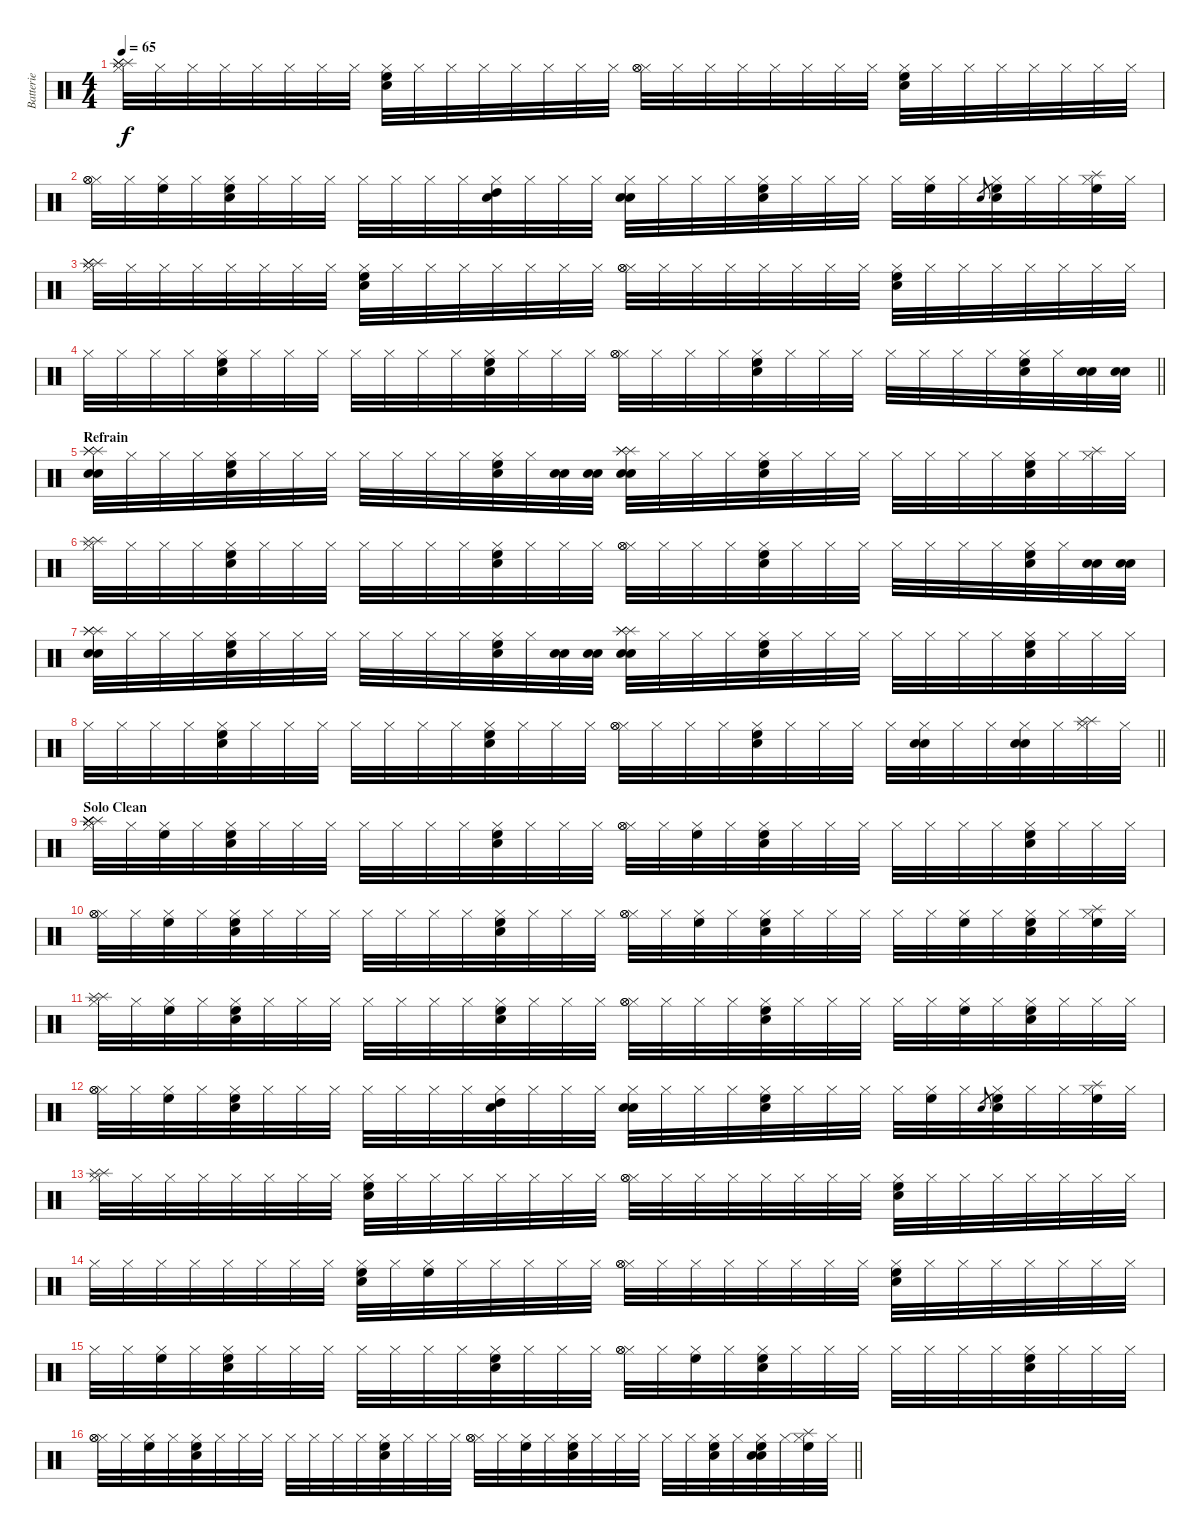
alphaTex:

\track ("Batterie" "Batterie") {instrument percussion}
\staff {score}
\articulation defaults
\ts (4 4)
\tempo 65
\clef neutral
\ks c
("Hi-Hat (closed)" "Splash (hit)" "Splash (hit)" "Splash (hit)").32{dy f} "Hi-Hat (closed)".32 "Hi-Hat (closed)".32 "Hi-Hat (closed)".32 "Hi-Hat (closed)".32 "Hi-Hat (closed)".32 "Hi-Hat (closed)".32 "Hi-Hat (closed)".32 ("Hi-Hat (closed)" "Snare (hit) 2" "High Floor Tom (hit)").32 "Hi-Hat (closed)".32 "Hi-Hat (closed)".32 "Hi-Hat (closed)".32 "Hi-Hat (closed)".32 "Hi-Hat (closed)".32 "Hi-Hat (closed)".32 "Hi-Hat (closed)".32 ("Hi-Hat (closed)" "Hi-Hat (open)" "Hi-Hat (open)").32 "Hi-Hat (closed)".32 "Hi-Hat (closed)".32 "Hi-Hat (closed)".32 "Hi-Hat (closed)".32 "Hi-Hat (closed)".32 "Hi-Hat (closed)".32 "Hi-Hat (closed)".32 ("Hi-Hat (closed)" "Snare (hit) 2" "High Floor Tom (hit)").32 "Hi-Hat (closed)".32 "Hi-Hat (closed)".32 "Hi-Hat (closed)".32 "Hi-Hat (closed)".32 "Hi-Hat (closed)".32 "Hi-Hat (closed)".32 "Hi-Hat (closed)".32 |
("Hi-Hat (closed)" "Hi-Hat (open)" "Hi-Hat (open)").32 "Hi-Hat (closed)".32 ("Hi-Hat (closed)" "High Floor Tom (hit)").32 "Hi-Hat (closed)".32 ("Hi-Hat (closed)" "Snare (hit) 2" "High Floor Tom (hit)").32 "Hi-Hat (closed)".32 "Hi-Hat (closed)".32 "Hi-Hat (closed)".32 "Hi-Hat (closed)".32 "Hi-Hat (closed)".32 "Hi-Hat (closed)".32 "Hi-Hat (closed)".32 ("Hi-Hat (closed)" "Snare (hit) 2" "High Tom (hit)").32 "Hi-Hat (closed)".32 "Hi-Hat (closed)".32 "Hi-Hat (closed)".32 ("Hi-Hat (closed)" "Snare (hit) 2" "Snare (hit) 2").32 "Hi-Hat (closed)".32 "Hi-Hat (closed)".32 "Hi-Hat (closed)".32 ("Hi-Hat (closed)" "Snare (hit) 2" "High Floor Tom (hit)").32 "Hi-Hat (closed)".32 "Hi-Hat (closed)".32 "Hi-Hat (closed)".32 "Hi-Hat (closed)".32 ("Hi-Hat (closed)" "High Floor Tom (hit)").32 "Hi-Hat (closed)".32 "Snare (hit) 2".8{gr} ("Hi-Hat (closed)" "Snare (hit) 2" "High Floor Tom (hit)").32 "Hi-Hat (closed)".32 "Hi-Hat (closed)".32 ("Hi-Hat (closed)" "Splash (hit)" "High Floor Tom (hit)").32 "Hi-Hat (closed)".32 |
("Hi-Hat (closed)" "Splash (hit)" "Splash (hit)" "Splash (hit)").32 "Hi-Hat (closed)".32 "Hi-Hat (closed)".32 "Hi-Hat (closed)".32 "Hi-Hat (closed)".32 "Hi-Hat (closed)".32 "Hi-Hat (closed)".32 "Hi-Hat (closed)".32 ("Hi-Hat (closed)" "Snare (hit) 2" "High Floor Tom (hit)").32 "Hi-Hat (closed)".32 "Hi-Hat (closed)".32 "Hi-Hat (closed)".32 "Hi-Hat (closed)".32 "Hi-Hat (closed)".32 "Hi-Hat (closed)".32 "Hi-Hat (closed)".32 ("Hi-Hat (closed)" "Hi-Hat (open)" "Hi-Hat (open)").32 "Hi-Hat (closed)".32 "Hi-Hat (closed)".32 "Hi-Hat (closed)".32 "Hi-Hat (closed)".32 "Hi-Hat (closed)".32 "Hi-Hat (closed)".32 "Hi-Hat (closed)".32 ("Hi-Hat (closed)" "Snare (hit) 2" "High Floor Tom (hit)").32 "Hi-Hat (closed)".32 "Hi-Hat (closed)".32 "Hi-Hat (closed)".32 "Hi-Hat (closed)".32 "Hi-Hat (closed)".32 "Hi-Hat (closed)".32 "Hi-Hat (closed)".32 |
\barLineRight lightlight "Hi-Hat (closed)".32 "Hi-Hat (closed)".32 "Hi-Hat (closed)".32 "Hi-Hat (closed)".32
("Hi-Hat (closed)" "Snare (hit) 2" "High Floor Tom (hit)").32 "Hi-Hat (closed)".32 "Hi-Hat (closed)".32 "Hi-Hat (closed)".32 "Hi-Hat (closed)".32 "Hi-Hat (closed)".32 "Hi-Hat (closed)".32 "Hi-Hat (closed)".32 ("Hi-Hat (closed)" "Snare (hit) 2" "High Floor Tom (hit)").32 "Hi-Hat (closed)".32 "Hi-Hat (closed)".32 "Hi-Hat (closed)".32 ("Hi-Hat (closed)" "Hi-Hat (open)" "Hi-Hat (open)").32 "Hi-Hat (closed)".32 "Hi-Hat (closed)".32 "Hi-Hat (closed)".32 ("Hi-Hat (closed)" "Snare (hit) 2" "High Floor Tom (hit)").32 "Hi-Hat (closed)".32 "Hi-Hat (closed)".32 "Hi-Hat (closed)".32 "Hi-Hat (closed)".32 "Hi-Hat (closed)".32 "Hi-Hat (closed)".32 "Hi-Hat (closed)".32 ("Hi-Hat (closed)" "Snare (hit) 2" "High Floor Tom (hit)").32 "Hi-Hat (closed)".32 ("Snare (hit) 2" "Snare (hit) 2").32 ("Snare (hit) 2" "Snare (hit) 2").32 |
\section ("" "Refrain")
("Snare (hit) 2" "Snare (hit) 2" "Splash (hit)" "Splash (hit)" "Splash (hit)").32 "Hi-Hat (closed)".32 "Hi-Hat (closed)".32 "Hi-Hat (closed)".32 ("Hi-Hat (closed)" "Snare (hit) 2" "High Floor Tom (hit)").32 "Hi-Hat (closed)".32 "Hi-Hat (closed)".32 "Hi-Hat (closed)".32 "Hi-Hat (closed)".32 "Hi-Hat (closed)".32 "Hi-Hat (closed)".32 "Hi-Hat (closed)".32 ("Hi-Hat (closed)" "Snare (hit) 2" "High Floor Tom (hit)").32 "Hi-Hat (closed)".32 ("Snare (hit) 2" "Snare (hit) 2").32 ("Snare (hit) 2" "Snare (hit) 2").32 ("Snare (hit) 2" "Snare (hit) 2" "Splash (hit)" "Splash (hit)" "Splash (hit)").32 "Hi-Hat (closed)".32 "Hi-Hat (closed)".32 "Hi-Hat (closed)".32 ("Hi-Hat (closed)" "Snare (hit) 2" "High Floor Tom (hit)").32 "Hi-Hat (closed)".32 "Hi-Hat (closed)".32 "Hi-Hat (closed)".32 "Hi-Hat (closed)".32 "Hi-Hat (closed)".32 "Hi-Hat (closed)".32 "Hi-Hat (closed)".32 ("Hi-Hat (closed)" "Snare (hit) 2" "High Floor Tom (hit)").32 "Hi-Hat (closed)".32 ("Hi-Hat (closed)" "Splash (hit)").32 "Hi-Hat (closed)".32 |
("Hi-Hat (closed)" "Splash (hit)" "Splash (hit)").32 "Hi-Hat (closed)".32 "Hi-Hat (closed)".32 "Hi-Hat (closed)".32 ("Hi-Hat (closed)" "Snare (hit) 2" "High Floor Tom (hit)").32 "Hi-Hat (closed)".32 "Hi-Hat (closed)".32 "Hi-Hat (closed)".32 "Hi-Hat (closed)".32 "Hi-Hat (closed)".32 "Hi-Hat (closed)".32 "Hi-Hat (closed)".32 ("Hi-Hat (closed)" "Snare (hit) 2" "High Floor Tom (hit)").32 "Hi-Hat (closed)".32 "Hi-Hat (closed)".32 "Hi-Hat (closed)".32 ("Hi-Hat (closed)" "Hi-Hat (open)" "Hi-Hat (open)").32 "Hi-Hat (closed)".32 "Hi-Hat (closed)".32 "Hi-Hat (closed)".32 ("Hi-Hat (closed)" "Snare (hit) 2" "High Floor Tom (hit)").32 "Hi-Hat (closed)".32 "Hi-Hat (closed)".32 "Hi-Hat (closed)".32 "Hi-Hat (closed)".32 "Hi-Hat (closed)".32 "Hi-Hat (closed)".32 "Hi-Hat (closed)".32 ("Hi-Hat (closed)" "Snare (hit) 2" "High Floor Tom (hit)").32 "Hi-Hat (closed)".32 ("Snare (hit) 2" "Snare (hit) 2").32 ("Snare (hit) 2" "Snare (hit) 2").32 |
("Snare (hit) 2" "Snare (hit) 2" "Splash (hit)" "Splash (hit)" "Splash (hit)").32 "Hi-Hat (closed)".32 "Hi-Hat (closed)".32 "Hi-Hat (closed)".32 ("Hi-Hat (closed)" "Snare (hit) 2" "High Floor Tom (hit)").32 "Hi-Hat (closed)".32 "Hi-Hat (closed)".32 "Hi-Hat (closed)".32 "Hi-Hat (closed)".32 "Hi-Hat (closed)".32 "Hi-Hat (closed)".32 "Hi-Hat (closed)".32 ("Hi-Hat (closed)" "Snare (hit) 2" "High Floor Tom (hit)").32 "Hi-Hat (closed)".32 ("Snare (hit) 2" "Snare (hit) 2").32 ("Snare (hit) 2" "Snare (hit) 2").32 ("Snare (hit) 2" "Snare (hit) 2" "Splash (hit)" "Splash (hit)" "Splash (hit)").32 "Hi-Hat (closed)".32 "Hi-Hat (closed)".32 "Hi-Hat (closed)".32 ("Hi-Hat (closed)" "Snare (hit) 2" "High Floor Tom (hit)").32 "Hi-Hat (closed)".32 "Hi-Hat (closed)".32 "Hi-Hat (closed)".32 "Hi-Hat (closed)".32 "Hi-Hat (closed)".32 "Hi-Hat (closed)".32 "Hi-Hat (closed)".32 ("Hi-Hat (closed)" "Snare (hit) 2" "High Floor Tom (hit)").32 "Hi-Hat (closed)".32 "Hi-Hat (closed)".32 "Hi-Hat (closed)".32 |
\barLineRight lightlight "Hi-Hat (closed)".32 "Hi-Hat (closed)".32 "Hi-Hat (closed)".32 "Hi-Hat (closed)".32
("Hi-Hat (closed)" "Snare (hit) 2" "High Floor Tom (hit)").32 "Hi-Hat (closed)".32 "Hi-Hat (closed)".32 "Hi-Hat (closed)".32 "Hi-Hat (closed)".32 "Hi-Hat (closed)".32 "Hi-Hat (closed)".32 "Hi-Hat (closed)".32 ("Hi-Hat (closed)" "Snare (hit) 2" "High Floor Tom (hit)").32 "Hi-Hat (closed)".32 "Hi-Hat (closed)".32 "Hi-Hat (closed)".32 ("Hi-Hat (closed)" "Hi-Hat (open)" "Hi-Hat (open)").32 "Hi-Hat (closed)".32 "Hi-Hat (closed)".32 "Hi-Hat (closed)".32 ("Hi-Hat (closed)" "Snare (hit) 2" "High Floor Tom (hit)").32 "Hi-Hat (closed)".32 "Hi-Hat (closed)".32 "Hi-Hat (closed)".32 "Hi-Hat (closed)".32 ("Hi-Hat (closed)" "Snare (hit) 2" "Snare (hit) 2").32 "Hi-Hat (closed)".32 "Hi-Hat (closed)".32 ("Hi-Hat (closed)" "Snare (hit) 2" "Snare (hit) 2").32 "Hi-Hat (closed)".32 ("Hi-Hat (closed)" "Splash (hit)" "Splash (hit)").32 "Hi-Hat (closed)".32 |
\section ("" "Solo Clean")
("Hi-Hat (closed)" "Splash (hit)" "Splash (hit)" "Splash (hit)" "Splash (hit)" "Splash (hit)").32 "Hi-Hat (closed)".32 ("Hi-Hat (closed)" "High Floor Tom (hit)").32 "Hi-Hat (closed)".32 ("Hi-Hat (closed)" "Snare (hit) 2" "High Floor Tom (hit)").32 "Hi-Hat (closed)".32 "Hi-Hat (closed)".32 "Hi-Hat (closed)".32 "Hi-Hat (closed)".32 "Hi-Hat (closed)".32 "Hi-Hat (closed)".32 "Hi-Hat (closed)".32 ("Hi-Hat (closed)" "Snare (hit) 2" "High Floor Tom (hit)").32 "Hi-Hat (closed)".32 "Hi-Hat (closed)".32 "Hi-Hat (closed)".32 ("Hi-Hat (closed)" "Hi-Hat (open)" "Hi-Hat (open)").32 "Hi-Hat (closed)".32 ("Hi-Hat (closed)" "High Floor Tom (hit)").32 "Hi-Hat (closed)".32 ("Hi-Hat (closed)" "Snare (hit) 2" "High Floor Tom (hit)").32 "Hi-Hat (closed)".32 "Hi-Hat (closed)".32 "Hi-Hat (closed)".32 "Hi-Hat (closed)".32 "Hi-Hat (closed)".32 "Hi-Hat (closed)".32 "Hi-Hat (closed)".32 ("Hi-Hat (closed)" "Snare (hit) 2" "High Floor Tom (hit)").32 "Hi-Hat (closed)".32 "Hi-Hat (closed)".32 "Hi-Hat (closed)".32 |
("Hi-Hat (closed)" "Hi-Hat (open)" "Hi-Hat (open)").32 "Hi-Hat (closed)".32 ("Hi-Hat (closed)" "High Floor Tom (hit)").32 "Hi-Hat (closed)".32 ("Hi-Hat (closed)" "Snare (hit) 2" "High Floor Tom (hit)").32 "Hi-Hat (closed)".32 "Hi-Hat (closed)".32 "Hi-Hat (closed)".32 "Hi-Hat (closed)".32 "Hi-Hat (closed)".32 "Hi-Hat (closed)".32 "Hi-Hat (closed)".32 ("Hi-Hat (closed)" "Snare (hit) 2" "High Floor Tom (hit)").32 "Hi-Hat (closed)".32 "Hi-Hat (closed)".32 "Hi-Hat (closed)".32 ("Hi-Hat (closed)" "Hi-Hat (open)" "Hi-Hat (open)").32 "Hi-Hat (closed)".32 ("Hi-Hat (closed)" "High Floor Tom (hit)").32 "Hi-Hat (closed)".32 ("Hi-Hat (closed)" "Snare (hit) 2" "High Floor Tom (hit)").32 "Hi-Hat (closed)".32 "Hi-Hat (closed)".32 "Hi-Hat (closed)".32 "Hi-Hat (closed)".32 "Hi-Hat (closed)".32 ("Hi-Hat (closed)" "High Floor Tom (hit)").32 "Hi-Hat (closed)".32 ("Hi-Hat (closed)" "Snare (hit) 2" "High Floor Tom (hit)").32 "Hi-Hat (closed)".32 ("Hi-Hat (closed)" "Splash (hit)" "High Floor Tom (hit)").32 "Hi-Hat (closed)".32 |
("Hi-Hat (closed)" "Splash (hit)" "Splash (hit)").32 "Hi-Hat (closed)".32 ("Hi-Hat (closed)" "High Floor Tom (hit)").32 "Hi-Hat (closed)".32 ("Hi-Hat (closed)" "Snare (hit) 2" "High Floor Tom (hit)").32 "Hi-Hat (closed)".32 "Hi-Hat (closed)".32 "Hi-Hat (closed)".32 "Hi-Hat (closed)".32 "Hi-Hat (closed)".32 "Hi-Hat (closed)".32 "Hi-Hat (closed)".32 ("Hi-Hat (closed)" "Snare (hit) 2" "High Floor Tom (hit)").32 "Hi-Hat (closed)".32 "Hi-Hat (closed)".32 "Hi-Hat (closed)".32 ("Hi-Hat (closed)" "Hi-Hat (open)" "Hi-Hat (open)").32 "Hi-Hat (closed)".32 "Hi-Hat (closed)".32 "Hi-Hat (closed)".32 ("Hi-Hat (closed)" "Snare (hit) 2" "High Floor Tom (hit)").32 "Hi-Hat (closed)".32 "Hi-Hat (closed)".32 "Hi-Hat (closed)".32 "Hi-Hat (closed)".32 "Hi-Hat (closed)".32 ("Hi-Hat (closed)" "High Floor Tom (hit)").32 "Hi-Hat (closed)".32 ("Hi-Hat (closed)" "Snare (hit) 2" "High Floor Tom (hit)").32 "Hi-Hat (closed)".32 "Hi-Hat (closed)".32 "Hi-Hat (closed)".32 |
("Hi-Hat (closed)" "Hi-Hat (open)" "Hi-Hat (open)").32 "Hi-Hat (closed)".32 ("Hi-Hat (closed)" "High Floor Tom (hit)").32 "Hi-Hat (closed)".32 ("Hi-Hat (closed)" "Snare (hit) 2" "High Floor Tom (hit)").32 "Hi-Hat (closed)".32 "Hi-Hat (closed)".32 "Hi-Hat (closed)".32 "Hi-Hat (closed)".32 "Hi-Hat (closed)".32 "Hi-Hat (closed)".32 "Hi-Hat (closed)".32 ("Hi-Hat (closed)" "Snare (hit) 2" "High Tom (hit)").32 "Hi-Hat (closed)".32 "Hi-Hat (closed)".32 "Hi-Hat (closed)".32 ("Hi-Hat (closed)" "Snare (hit) 2" "Snare (hit) 2").32 "Hi-Hat (closed)".32 "Hi-Hat (closed)".32 "Hi-Hat (closed)".32 ("Hi-Hat (closed)" "Snare (hit) 2" "High Floor Tom (hit)").32 "Hi-Hat (closed)".32 "Hi-Hat (closed)".32 "Hi-Hat (closed)".32 "Hi-Hat (closed)".32 ("Hi-Hat (closed)" "High Floor Tom (hit)").32 "Hi-Hat (closed)".32 "Snare (hit) 2".8{gr} ("Hi-Hat (closed)" "Snare (hit) 2" "High Floor Tom (hit)").32 "Hi-Hat (closed)".32 "Hi-Hat (closed)".32 ("Hi-Hat (closed)" "Splash (hit)" "High Floor Tom (hit)").32 "Hi-Hat (closed)".32 |
("Hi-Hat (closed)" "Splash (hit)" "Splash (hit)").32 "Hi-Hat (closed)".32 "Hi-Hat (closed)".32 "Hi-Hat (closed)".32 "Hi-Hat (closed)".32 "Hi-Hat (closed)".32 "Hi-Hat (closed)".32 "Hi-Hat (closed)".32 ("Hi-Hat (closed)" "Snare (hit) 2" "High Floor Tom (hit)").32 "Hi-Hat (closed)".32 "Hi-Hat (closed)".32 "Hi-Hat (closed)".32 "Hi-Hat (closed)".32 "Hi-Hat (closed)".32 "Hi-Hat (closed)".32 "Hi-Hat (closed)".32 ("Hi-Hat (closed)" "Hi-Hat (open)" "Hi-Hat (open)").32 "Hi-Hat (closed)".32 "Hi-Hat (closed)".32 "Hi-Hat (closed)".32 "Hi-Hat (closed)".32 "Hi-Hat (closed)".32 "Hi-Hat (closed)".32 "Hi-Hat (closed)".32 ("Hi-Hat (closed)" "Snare (hit) 2" "High Floor Tom (hit)").32 "Hi-Hat (closed)".32 "Hi-Hat (closed)".32 "Hi-Hat (closed)".32 "Hi-Hat (closed)".32 "Hi-Hat (closed)".32 "Hi-Hat (closed)".32 "Hi-Hat (closed)".32 |
"Hi-Hat (closed)".32 "Hi-Hat (closed)".32 "Hi-Hat (closed)".32 "Hi-Hat (closed)".32 "Hi-Hat (closed)".32 "Hi-Hat (closed)".32 "Hi-Hat (closed)".32 "Hi-Hat (closed)".32 ("Hi-Hat (closed)" "Snare (hit) 2" "High Floor Tom (hit)").32 "Hi-Hat (closed)".32 ("Hi-Hat (closed)" "High Floor Tom (hit)").32 "Hi-Hat (closed)".32 "Hi-Hat (closed)".32 "Hi-Hat (closed)".32 "Hi-Hat (closed)".32 "Hi-Hat (closed)".32 ("Hi-Hat (closed)" "Hi-Hat (open)" "Hi-Hat (open)").32 "Hi-Hat (closed)".32 "Hi-Hat (closed)".32 "Hi-Hat (closed)".32 "Hi-Hat (closed)".32 "Hi-Hat (closed)".32 "Hi-Hat (closed)".32 "Hi-Hat (closed)".32 ("Hi-Hat (closed)" "Snare (hit) 2" "High Floor Tom (hit)").32 "Hi-Hat (closed)".32 "Hi-Hat (closed)".32 "Hi-Hat (closed)".32 "Hi-Hat (closed)".32 "Hi-Hat (closed)".32 "Hi-Hat (closed)".32 "Hi-Hat (closed)".32 |
"Hi-Hat (closed)".32 "Hi-Hat (closed)".32 ("Hi-Hat (closed)" "High Floor Tom (hit)").32 "Hi-Hat (closed)".32 ("Hi-Hat (closed)" "Snare (hit) 2" "High Floor Tom (hit)").32 "Hi-Hat (closed)".32 "Hi-Hat (closed)".32 "Hi-Hat (closed)".32 "Hi-Hat (closed)".32 "Hi-Hat (closed)".32 "Hi-Hat (closed)".32 "Hi-Hat (closed)".32 ("Hi-Hat (closed)" "Snare (hit) 2" "High Floor Tom (hit)").32 "Hi-Hat (closed)".32 "Hi-Hat (closed)".32 "Hi-Hat (closed)".32 ("Hi-Hat (closed)" "Hi-Hat (open)" "Hi-Hat (open)").32 "Hi-Hat (closed)".32 ("Hi-Hat (closed)" "High Floor Tom (hit)").32 "Hi-Hat (closed)".32 ("Hi-Hat (closed)" "Snare (hit) 2" "High Floor Tom (hit)").32 "Hi-Hat (closed)".32 "Hi-Hat (closed)".32 "Hi-Hat (closed)".32 "Hi-Hat (closed)".32 "Hi-Hat (closed)".32 "Hi-Hat (closed)".32 "Hi-Hat (closed)".32 ("Hi-Hat (closed)" "Snare (hit) 2" "High Floor Tom (hit)").32 "Hi-Hat (closed)".32 "Hi-Hat (closed)".32 "Hi-Hat (closed)".32 |
\barLineRight lightlight
("Hi-Hat (closed)" "Hi-Hat (open)" "Hi-Hat (open)").32 "Hi-Hat (closed)".32 ("Hi-Hat (closed)" "High Floor Tom (hit)").32 "Hi-Hat (closed)".32 ("Hi-Hat (closed)" "Snare (hit) 2" "High Floor Tom (hit)").32 "Hi-Hat (closed)".32 "Hi-Hat (closed)".32 "Hi-Hat (closed)".32 "Hi-Hat (closed)".32 "Hi-Hat (closed)".32 "Hi-Hat (closed)".32 "Hi-Hat (closed)".32 ("Hi-Hat (closed)" "Snare (hit) 2" "High Floor Tom (hit)").32 "Hi-Hat (closed)".32 "Hi-Hat (closed)".32 "Hi-Hat (closed)".32 ("Hi-Hat (closed)" "Hi-Hat (open)" "Hi-Hat (open)").32 "Hi-Hat (closed)".32 ("Hi-Hat (closed)" "High Floor Tom (hit)").32 "Hi-Hat (closed)".32 ("Hi-Hat (closed)" "Snare (hit) 2" "High Floor Tom (hit)").32 "Hi-Hat (closed)".32 "Hi-Hat (closed)".32 "Hi-Hat (closed)".32 "Hi-Hat (closed)".32 "Hi-Hat (closed)".32 ("Hi-Hat (closed)" "Snare (hit) 2" "High Floor Tom (hit)").32 "Hi-Hat (closed)".32 ("Hi-Hat (closed)" "Snare (hit) 2" "Snare (hit) 2" "High Floor Tom (hit)").32 "Hi-Hat (closed)".32 ("Hi-Hat (closed)" "Splash (hit)" "High Floor Tom (hit)").32 "Hi-Hat (closed)".32
